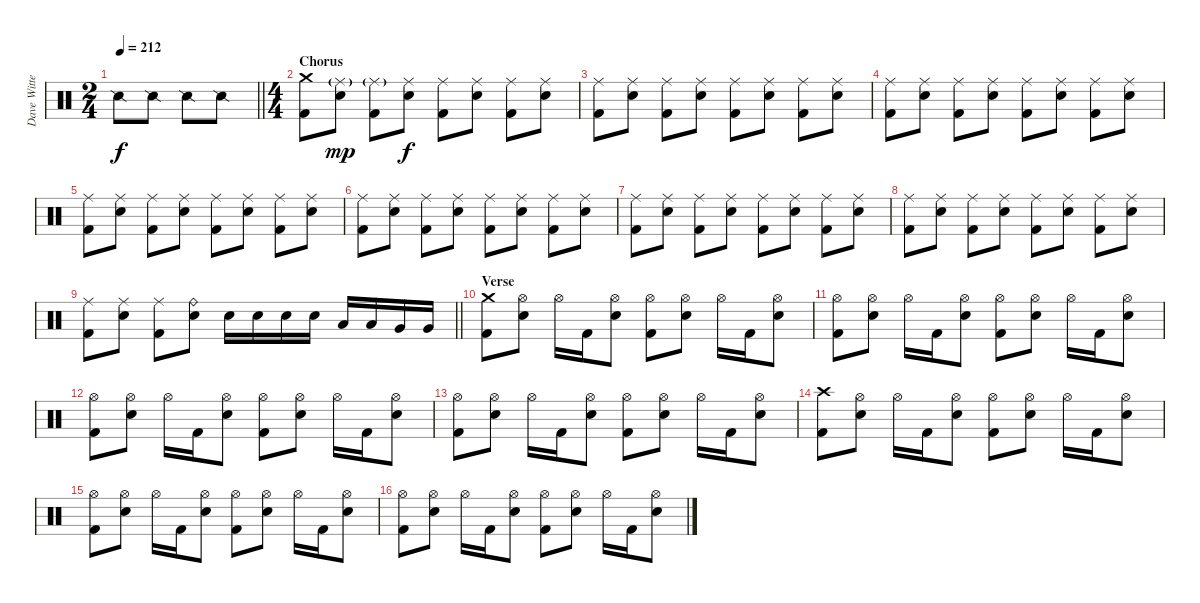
\track ("Dave Witte" "Dave Witte") {instrument percussion}
\staff {score}
\articulation defaults
\ts (2 4)
\tempo 212
\clef neutral
\barLineRight lightlight
\ks c "Snare (side stick) 2".8{dy f} "Snare (side stick) 2".8 "Snare (side stick) 2".8 "Snare (side stick) 2".8
|
\ts (4 4)
\section ("" "Chorus")
("Crash medium (hit)" "Kick (hit) 2").8 ("Ride (middle)"{g} "Electric Snare (hit)").8{dy mp} ("Ride (middle)"{g} "Kick (hit) 2").8 ("Ride (middle)" "Electric Snare (hit)").8{dy f} ("Ride (middle)" "Kick (hit) 2").8 ("Ride (middle)" "Electric Snare (hit)").8 ("Ride (middle)" "Kick (hit) 2").8 ("Ride (middle)" "Electric Snare (hit)").8 |
("Ride (middle)" "Kick (hit) 2").8 ("Ride (middle)" "Electric Snare (hit)").8 ("Ride (middle)" "Kick (hit) 2").8 ("Ride (middle)" "Electric Snare (hit)").8 ("Ride (middle)" "Kick (hit) 2").8 ("Ride (middle)" "Electric Snare (hit)").8 ("Ride (middle)" "Kick (hit) 2").8 ("Ride (middle)" "Electric Snare (hit)").8 |
("Ride (middle)" "Kick (hit) 2").8 ("Ride (middle)" "Electric Snare (hit)").8 ("Ride (middle)" "Kick (hit) 2").8 ("Ride (middle)" "Electric Snare (hit)").8 ("Ride (middle)" "Kick (hit) 2").8 ("Ride (middle)" "Electric Snare (hit)").8 ("Ride (middle)" "Kick (hit) 2").8 ("Ride (middle)" "Electric Snare (hit)").8 |
("Ride (middle)" "Kick (hit) 2").8 ("Ride (middle)" "Electric Snare (hit)").8 ("Ride (middle)" "Kick (hit) 2").8 ("Ride (middle)" "Electric Snare (hit)").8 ("Ride (middle)" "Kick (hit) 2").8 ("Ride (middle)" "Electric Snare (hit)").8 ("Ride (middle)" "Kick (hit) 2").8 ("Ride (middle)" "Electric Snare (hit)").8 |
("Ride (middle)" "Kick (hit) 2").8 ("Ride (middle)" "Electric Snare (hit)").8 ("Ride (middle)" "Kick (hit) 2").8 ("Ride (middle)" "Electric Snare (hit)").8 ("Ride (middle)" "Kick (hit) 2").8 ("Ride (middle)" "Electric Snare (hit)").8 ("Ride (middle)" "Kick (hit) 2").8 ("Ride (middle)" "Electric Snare (hit)").8 |
("Ride (middle)" "Kick (hit) 2").8 ("Ride (middle)" "Electric Snare (hit)").8 ("Ride (middle)" "Kick (hit) 2").8 ("Ride (middle)" "Electric Snare (hit)").8 ("Ride (middle)" "Kick (hit) 2").8 ("Ride (middle)" "Electric Snare (hit)").8 ("Ride (middle)" "Kick (hit) 2").8 ("Ride (middle)" "Electric Snare (hit)").8 |
("Ride (middle)" "Kick (hit) 2").8 ("Ride (middle)" "Electric Snare (hit)").8 ("Ride (middle)" "Kick (hit) 2").8 ("Ride (middle)" "Electric Snare (hit)").8 ("Ride (middle)" "Kick (hit) 2").8 ("Ride (middle)" "Electric Snare (hit)").8 ("Ride (middle)" "Kick (hit) 2").8 ("Ride (middle)" "Electric Snare (hit)").8 |
\barLineRight lightlight
("Ride (middle)" "Kick (hit) 2").8 ("Ride (middle)" "Electric Snare (hit)").8 ("Ride (middle)" "Kick (hit) 2").8 ("Ride (bell)" "Electric Snare (hit)").8 "Electric Snare (hit)".16 "Electric Snare (hit)".16 "Electric Snare (hit)".16 "Electric Snare (hit)".16 "Low Tom (hit)".16 "Low Tom (hit)".16 "Very Low Tom (hit)".16 "Very Low Tom (hit)".16 |
\section ("" "Verse")
("Crash medium (hit)" "Kick (hit) 2").8 ("Hi-Hat (open)" "Electric Snare (hit)").8 "Hi-Hat (open)".16 "Kick (hit) 2".16 ("Hi-Hat (open)" "Electric Snare (hit)").8 ("Hi-Hat (open)" "Kick (hit) 2").8 ("Hi-Hat (open)" "Electric Snare (hit)").8 "Hi-Hat (open)".16 "Kick (hit) 2".16 ("Hi-Hat (open)" "Electric Snare (hit)").8 |
("Hi-Hat (open)" "Kick (hit) 2").8 ("Hi-Hat (open)" "Electric Snare (hit)").8 "Hi-Hat (open)".16 "Kick (hit) 2".16 ("Hi-Hat (open)" "Electric Snare (hit)").8 ("Hi-Hat (open)" "Kick (hit) 2").8 ("Hi-Hat (open)" "Electric Snare (hit)").8 "Hi-Hat (open)".16 "Kick (hit) 2".16 ("Hi-Hat (open)" "Electric Snare (hit)").8 |
("Hi-Hat (open)" "Kick (hit) 2").8 ("Hi-Hat (open)" "Electric Snare (hit)").8 "Hi-Hat (open)".16 "Kick (hit) 2".16 ("Hi-Hat (open)" "Electric Snare (hit)").8 ("Hi-Hat (open)" "Kick (hit) 2").8 ("Hi-Hat (open)" "Electric Snare (hit)").8 "Hi-Hat (open)".16 "Kick (hit) 2".16 ("Hi-Hat (open)" "Electric Snare (hit)").8 |
("Hi-Hat (open)" "Kick (hit) 2").8 ("Hi-Hat (open)" "Electric Snare (hit)").8 "Hi-Hat (open)".16 "Kick (hit) 2".16 ("Hi-Hat (open)" "Electric Snare (hit)").8 ("Hi-Hat (open)" "Kick (hit) 2").8 ("Hi-Hat (open)" "Electric Snare (hit)").8 "Hi-Hat (open)".16 "Kick (hit) 2".16 ("Hi-Hat (open)" "Electric Snare (hit)").8 |
("Crash high (hit)" "Kick (hit) 2").8 ("Hi-Hat (open)" "Electric Snare (hit)").8 "Hi-Hat (open)".16 "Kick (hit) 2".16 ("Hi-Hat (open)" "Electric Snare (hit)").8 ("Hi-Hat (open)" "Kick (hit) 2").8 ("Hi-Hat (open)" "Electric Snare (hit)").8 "Hi-Hat (open)".16 "Kick (hit) 2".16 ("Hi-Hat (open)" "Electric Snare (hit)").8 |
("Hi-Hat (open)" "Kick (hit) 2").8 ("Hi-Hat (open)" "Electric Snare (hit)").8 "Hi-Hat (open)".16 "Kick (hit) 2".16 ("Hi-Hat (open)" "Electric Snare (hit)").8 ("Hi-Hat (open)" "Kick (hit) 2").8 ("Hi-Hat (open)" "Electric Snare (hit)").8 "Hi-Hat (open)".16 "Kick (hit) 2".16 ("Hi-Hat (open)" "Electric Snare (hit)").8 |
("Hi-Hat (open)" "Kick (hit) 2").8 ("Hi-Hat (open)" "Electric Snare (hit)").8 "Hi-Hat (open)".16 "Kick (hit) 2".16 ("Hi-Hat (open)" "Electric Snare (hit)").8 ("Hi-Hat (open)" "Kick (hit) 2").8 ("Hi-Hat (open)" "Electric Snare (hit)").8 "Hi-Hat (open)".16 "Kick (hit) 2".16 ("Hi-Hat (open)" "Electric Snare (hit)").8
